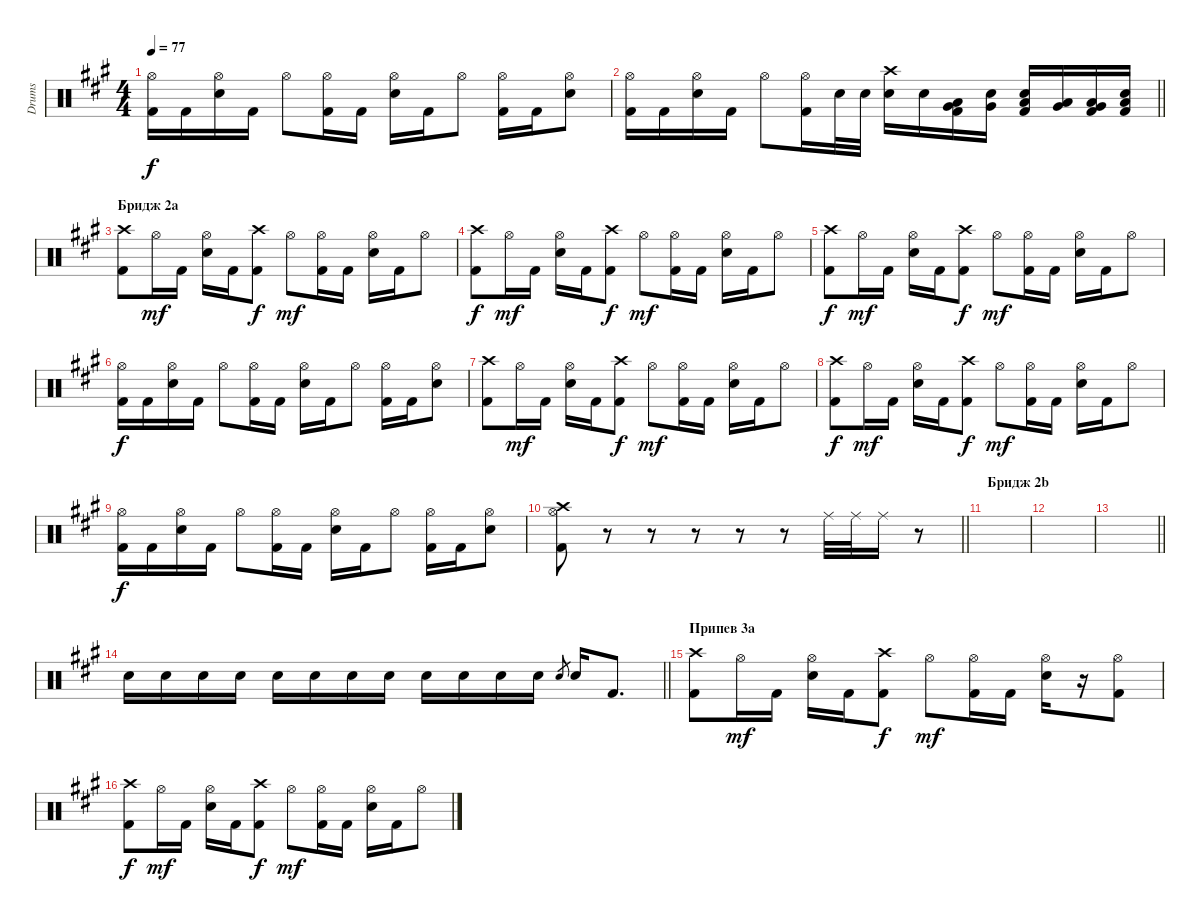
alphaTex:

\track ("Drums" "Drums") {instrument percussion}
\staff {score}
\articulation defaults
\ts (4 4)
\tempo 77
\clef neutral
\ks f#minor
("Hi-Hat (open)" "Kick (hit) 2").16{dy f} "Kick (hit) 2".16 ("Hi-Hat (open)" "Electric Snare (hit)").16 "Kick (hit) 2".16 "Hi-Hat (open)".8 ("Hi-Hat (open)" "Kick (hit) 2").16 "Kick (hit) 2".16 ("Hi-Hat (open)" "Electric Snare (hit)").16 "Kick (hit) 2".16 "Hi-Hat (open)".8 ("Hi-Hat (open)" "Kick (hit) 2").16 "Kick (hit) 2".16 ("Hi-Hat (open)" "Electric Snare (hit)").8 |
\barLineRight lightlight
("Hi-Hat (open)" "Kick (hit) 2").16 "Kick (hit) 2".16 ("Hi-Hat (open)" "Electric Snare (hit)").16 "Kick (hit) 2".16 "Hi-Hat (open)".8 ("Hi-Hat (open)" "Kick (hit) 2").16 "Electric Snare (hit)".32 "Electric Snare (hit)".32 ("Crash high (hit)" "Electric Snare (hit)").16 "Electric Snare (hit)".16 ("Very Low Tom (hit)" "Low Tom (hit)" "Kick (hit) 2").16 ("Very Low Tom (hit)" "Electric Snare (hit)").16 ("Low Floor Tom (hit)" "Electric Snare (hit)" "Kick (hit) 2").16 ("Low Floor Tom (hit)" "Very Low Tom (hit)").16 ("Very Low Tom (hit)" "Low Floor Tom (hit)" "Kick (hit) 2").16 ("Low Floor Tom (hit)" "Electric Snare (hit)" "Kick (hit) 2").16 |
\section ("" "Бридж 2a")
("Crash high (hit)" "Kick (hit) 2").8 "Hi-Hat (open)".16{dy mf} "Kick (hit) 2".16 ("Hi-Hat (open)" "Electric Snare (hit)").16 "Kick (hit) 2".16 ("Crash high (hit)" "Kick (hit) 2").8{dy f} "Hi-Hat (open)".8{dy mf} ("Hi-Hat (open)" "Kick (hit) 2").16 "Kick (hit) 2".16 ("Hi-Hat (open)" "Electric Snare (hit)").16 "Kick (hit) 2".16 "Hi-Hat (open)".8 |
("Crash high (hit)" "Kick (hit) 2").8{dy f} "Hi-Hat (open)".16{dy mf} "Kick (hit) 2".16 ("Hi-Hat (open)" "Electric Snare (hit)").16 "Kick (hit) 2".16 ("Crash high (hit)" "Kick (hit) 2").8{dy f} "Hi-Hat (open)".8{dy mf} ("Hi-Hat (open)" "Kick (hit) 2").16 "Kick (hit) 2".16 ("Hi-Hat (open)" "Electric Snare (hit)").16 "Kick (hit) 2".16 "Hi-Hat (open)".8 |
("Crash high (hit)" "Kick (hit) 2").8{dy f} "Hi-Hat (open)".16{dy mf} "Kick (hit) 2".16 ("Hi-Hat (open)" "Electric Snare (hit)").16 "Kick (hit) 2".16 ("Crash high (hit)" "Kick (hit) 2").8{dy f} "Hi-Hat (open)".8{dy mf} ("Hi-Hat (open)" "Kick (hit) 2").16 "Kick (hit) 2".16 ("Hi-Hat (open)" "Electric Snare (hit)").16 "Kick (hit) 2".16 "Hi-Hat (open)".8 |
("Hi-Hat (open)" "Kick (hit) 2").16{dy f} "Kick (hit) 2".16 ("Hi-Hat (open)" "Electric Snare (hit)").16 "Kick (hit) 2".16 "Hi-Hat (open)".8 ("Hi-Hat (open)" "Kick (hit) 2").16 "Kick (hit) 2".16 ("Hi-Hat (open)" "Electric Snare (hit)").16 "Kick (hit) 2".16 "Hi-Hat (open)".8 ("Hi-Hat (open)" "Kick (hit) 2").16 "Kick (hit) 2".16 ("Hi-Hat (open)" "Electric Snare (hit)").8 |
("Crash high (hit)" "Kick (hit) 2").8 "Hi-Hat (open)".16{dy mf} "Kick (hit) 2".16 ("Hi-Hat (open)" "Electric Snare (hit)").16 "Kick (hit) 2".16 ("Crash high (hit)" "Kick (hit) 2").8{dy f} "Hi-Hat (open)".8{dy mf} ("Hi-Hat (open)" "Kick (hit) 2").16 "Kick (hit) 2".16 ("Hi-Hat (open)" "Electric Snare (hit)").16 "Kick (hit) 2".16 "Hi-Hat (open)".8 |
("Crash high (hit)" "Kick (hit) 2").8{dy f} "Hi-Hat (open)".16{dy mf} "Kick (hit) 2".16 ("Hi-Hat (open)" "Electric Snare (hit)").16 "Kick (hit) 2".16 ("Crash high (hit)" "Kick (hit) 2").8{dy f} "Hi-Hat (open)".8{dy mf} ("Hi-Hat (open)" "Kick (hit) 2").16 "Kick (hit) 2".16 ("Hi-Hat (open)" "Electric Snare (hit)").16 "Kick (hit) 2".16 "Hi-Hat (open)".8 |
("Hi-Hat (open)" "Kick (hit) 2").16{dy f} "Kick (hit) 2".16 ("Hi-Hat (open)" "Electric Snare (hit)").16 "Kick (hit) 2".16 "Hi-Hat (open)".8 ("Hi-Hat (open)" "Kick (hit) 2").16 "Kick (hit) 2".16 ("Hi-Hat (open)" "Electric Snare (hit)").16 "Kick (hit) 2".16 "Hi-Hat (open)".8 ("Hi-Hat (open)" "Kick (hit) 2").16 "Kick (hit) 2".16 ("Hi-Hat (open)" "Electric Snare (hit)").8 |
\barLineRight lightlight
("Hi-Hat (open)" "Crash high (hit)" "Kick (hit) 2").8 r.8 r.8 r.8 r.8 r.8 "Ride (middle)".32 "Ride (middle)".32 "Ride (middle)".16 r.8 |
\section ("" "Бридж 2b")
|
|
\barLineRight lightlight
|
\barLineRight lightlight "Electric Snare (hit)".16{volume 13} "Electric Snare (hit)".16 "Electric Snare (hit)".16 "Electric Snare (hit)".16 "Electric Snare (hit)".16 "Electric Snare (hit)".16 "Electric Snare (hit)".16 "Electric Snare (hit)".16 "Electric Snare (hit)".16 "Electric Snare (hit)".16 "Electric Snare (hit)".16 "Electric Snare (hit)".16 "Electric Snare (hit)".8{gr} "Electric Snare (hit)".16 "Kick (hit) 2".8{d}
|
\section ("" "Припев 3a")
("Crash high (hit)" "Kick (hit) 2").8 "Hi-Hat (open)".16{dy mf} "Kick (hit) 2".16 ("Hi-Hat (open)" "Electric Snare (hit)").16 "Kick (hit) 2".16 ("Crash high (hit)" "Kick (hit) 2").8{dy f} "Hi-Hat (open)".8{dy mf} ("Hi-Hat (open)" "Kick (hit) 2").16 "Kick (hit) 2".16 ("Hi-Hat (open)" "Electric Snare (hit)").16 r.16 ("Hi-Hat (open)" "Kick (hit) 2").8 |
("Crash high (hit)" "Kick (hit) 2").8{dy f} "Hi-Hat (open)".16{dy mf} "Kick (hit) 2".16 ("Hi-Hat (open)" "Electric Snare (hit)").16 "Kick (hit) 2".16 ("Crash high (hit)" "Kick (hit) 2").8{dy f} "Hi-Hat (open)".8{dy mf} ("Hi-Hat (open)" "Kick (hit) 2").16 "Kick (hit) 2".16 ("Hi-Hat (open)" "Electric Snare (hit)").16 "Kick (hit) 2".16 "Hi-Hat (open)".8
